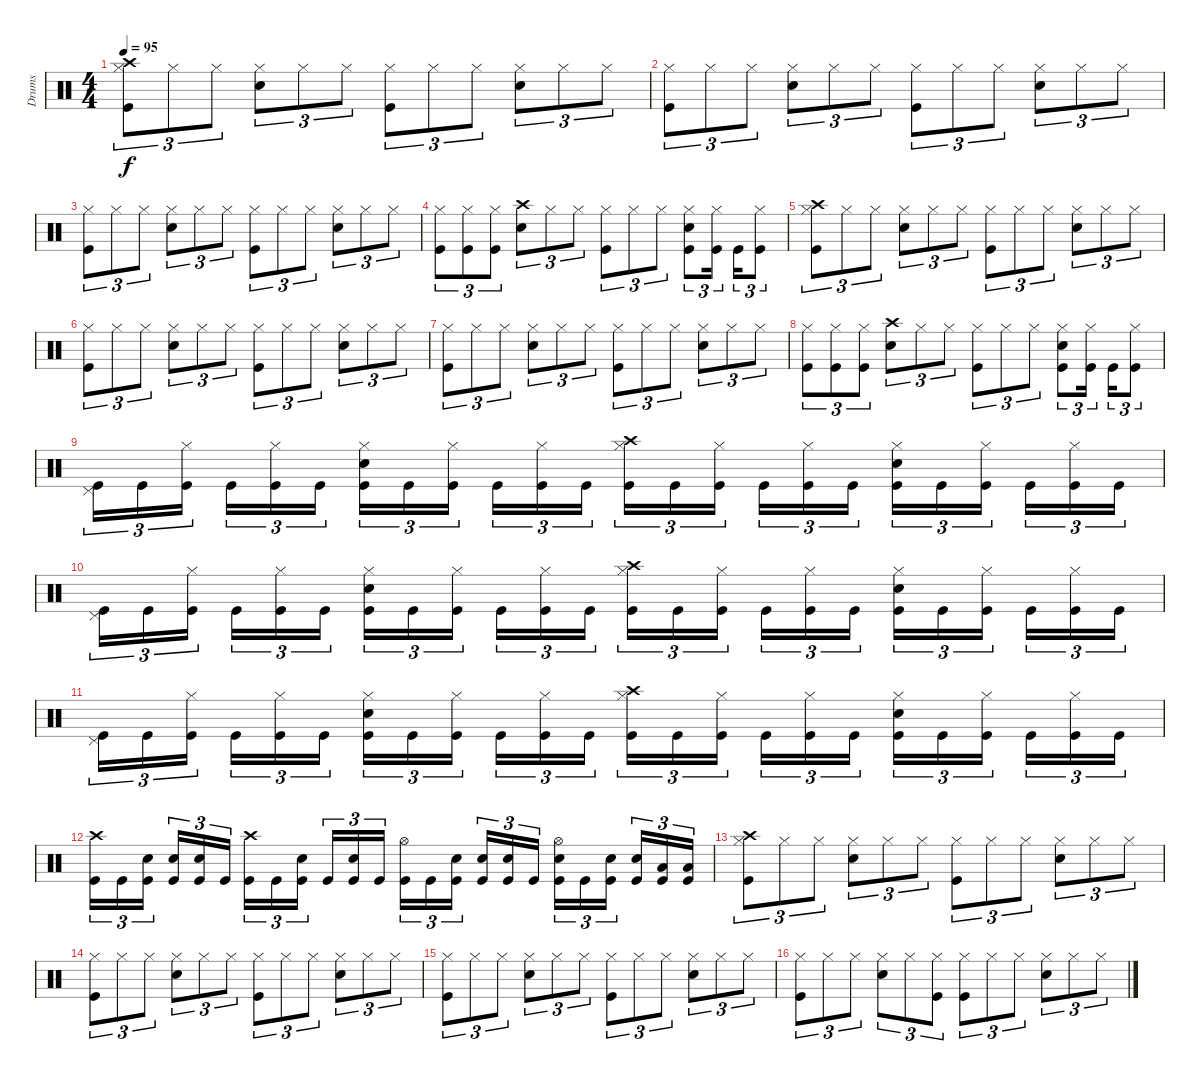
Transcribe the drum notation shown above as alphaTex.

\track ("Drums" "Drums") {instrument percussion}
\staff {score}
\articulation defaults
\ts (4 4)
\tempo 95
\clef neutral
\ks c
("Crash high (hit)" "Hi-Hat (closed)" "Kick (hit)").8{tu (3 2) dy f} "Hi-Hat (closed)".8{tu (3 2)} "Hi-Hat (closed)".8{tu (3 2)} ("Hi-Hat (closed)" "Electric Snare (hit)").8{tu (3 2)} "Hi-Hat (closed)".8{tu (3 2)} "Hi-Hat (closed)".8{tu (3 2)} ("Hi-Hat (closed)" "Kick (hit)").8{tu (3 2)} "Hi-Hat (closed)".8{tu (3 2)} "Hi-Hat (closed)".8{tu (3 2)} ("Hi-Hat (closed)" "Electric Snare (hit)").8{tu (3 2)} "Hi-Hat (closed)".8{tu (3 2)} "Hi-Hat (closed)".8{tu (3 2)} |
("Hi-Hat (closed)" "Kick (hit)").8{tu (3 2)} "Hi-Hat (closed)".8{tu (3 2)} "Hi-Hat (closed)".8{tu (3 2)} ("Hi-Hat (closed)" "Electric Snare (hit)").8{tu (3 2)} "Hi-Hat (closed)".8{tu (3 2)} "Hi-Hat (closed)".8{tu (3 2)} ("Hi-Hat (closed)" "Kick (hit)").8{tu (3 2)} "Hi-Hat (closed)".8{tu (3 2)} "Hi-Hat (closed)".8{tu (3 2)} ("Hi-Hat (closed)" "Electric Snare (hit)").8{tu (3 2)} "Hi-Hat (closed)".8{tu (3 2)} "Hi-Hat (closed)".8{tu (3 2)} |
("Hi-Hat (closed)" "Kick (hit)").8{tu (3 2)} "Hi-Hat (closed)".8{tu (3 2)} "Hi-Hat (closed)".8{tu (3 2)} ("Hi-Hat (closed)" "Electric Snare (hit)").8{tu (3 2)} "Hi-Hat (closed)".8{tu (3 2)} "Hi-Hat (closed)".8{tu (3 2)} ("Hi-Hat (closed)" "Kick (hit)").8{tu (3 2)} "Hi-Hat (closed)".8{tu (3 2)} "Hi-Hat (closed)".8{tu (3 2)} ("Hi-Hat (closed)" "Electric Snare (hit)").8{tu (3 2)} "Hi-Hat (closed)".8{tu (3 2)} "Hi-Hat (closed)".8{tu (3 2)} |
("Hi-Hat (closed)" "Kick (hit)").8{tu (3 2)} ("Hi-Hat (closed)" "Kick (hit)").8{tu (3 2)} ("Hi-Hat (closed)" "Kick (hit)").8{tu (3 2)} ("Crash high (hit)" "Electric Snare (hit)").8{tu (3 2)} "Hi-Hat (closed)".8{tu (3 2)} "Hi-Hat (closed)".8{tu (3 2)} ("Hi-Hat (closed)" "Kick (hit)").8{tu (3 2)} "Hi-Hat (closed)".8{tu (3 2)} "Hi-Hat (closed)".8{tu (3 2)} ("Hi-Hat (closed)" "Electric Snare (hit)" "Kick (hit)").8{tu (3 2)} ("Hi-Hat (closed)" "Kick (hit)").16{tu (3 2)} "Kick (hit)".16{tu (3 2)} ("Hi-Hat (closed)" "Kick (hit)").8{tu (3 2)} |
("Crash high (hit)" "Hi-Hat (closed)" "Kick (hit)").8{tu (3 2)} "Hi-Hat (closed)".8{tu (3 2)} "Hi-Hat (closed)".8{tu (3 2)} ("Hi-Hat (closed)" "Electric Snare (hit)").8{tu (3 2)} "Hi-Hat (closed)".8{tu (3 2)} "Hi-Hat (closed)".8{tu (3 2)} ("Hi-Hat (closed)" "Kick (hit)").8{tu (3 2)} "Hi-Hat (closed)".8{tu (3 2)} "Hi-Hat (closed)".8{tu (3 2)} ("Hi-Hat (closed)" "Electric Snare (hit)").8{tu (3 2)} "Hi-Hat (closed)".8{tu (3 2)} "Hi-Hat (closed)".8{tu (3 2)} |
("Hi-Hat (closed)" "Kick (hit)").8{tu (3 2)} "Hi-Hat (closed)".8{tu (3 2)} "Hi-Hat (closed)".8{tu (3 2)} ("Hi-Hat (closed)" "Electric Snare (hit)").8{tu (3 2)} "Hi-Hat (closed)".8{tu (3 2)} "Hi-Hat (closed)".8{tu (3 2)} ("Hi-Hat (closed)" "Kick (hit)").8{tu (3 2)} "Hi-Hat (closed)".8{tu (3 2)} "Hi-Hat (closed)".8{tu (3 2)} ("Hi-Hat (closed)" "Electric Snare (hit)").8{tu (3 2)} "Hi-Hat (closed)".8{tu (3 2)} "Hi-Hat (closed)".8{tu (3 2)} |
("Hi-Hat (closed)" "Kick (hit)").8{tu (3 2)} "Hi-Hat (closed)".8{tu (3 2)} "Hi-Hat (closed)".8{tu (3 2)} ("Hi-Hat (closed)" "Electric Snare (hit)").8{tu (3 2)} "Hi-Hat (closed)".8{tu (3 2)} "Hi-Hat (closed)".8{tu (3 2)} ("Hi-Hat (closed)" "Kick (hit)").8{tu (3 2)} "Hi-Hat (closed)".8{tu (3 2)} "Hi-Hat (closed)".8{tu (3 2)} ("Hi-Hat (closed)" "Electric Snare (hit)").8{tu (3 2)} "Hi-Hat (closed)".8{tu (3 2)} "Hi-Hat (closed)".8{tu (3 2)} |
("Hi-Hat (closed)" "Kick (hit)").8{tu (3 2)} ("Hi-Hat (closed)" "Kick (hit)").8{tu (3 2)} ("Hi-Hat (closed)" "Kick (hit)").8{tu (3 2)} ("Crash high (hit)" "Electric Snare (hit)").8{tu (3 2)} "Hi-Hat (closed)".8{tu (3 2)} "Hi-Hat (closed)".8{tu (3 2)} ("Hi-Hat (closed)" "Kick (hit)").8{tu (3 2)} "Hi-Hat (closed)".8{tu (3 2)} "Hi-Hat (closed)".8{tu (3 2)} ("Hi-Hat (closed)" "Electric Snare (hit)" "Kick (hit)").8{tu (3 2)} ("Hi-Hat (closed)" "Kick (hit)").16{tu (3 2)} "Kick (hit)".16{tu (3 2)} ("Hi-Hat (closed)" "Kick (hit)").8{tu (3 2)} |
("Pedal Hi-Hat (hit)" "Kick (hit)").16{tu (3 2)} "Kick (hit)".16{tu (3 2)} ("Hi-Hat (closed)" "Kick (hit)").16{tu (3 2)} "Kick (hit)".16{tu (3 2)} ("Hi-Hat (closed)" "Kick (hit)").16{tu (3 2)} "Kick (hit)".16{tu (3 2)} ("Hi-Hat (closed)" "Electric Snare (hit)" "Kick (hit)").16{tu (3 2)} "Kick (hit)".16{tu (3 2)} ("Hi-Hat (closed)" "Kick (hit)").16{tu (3 2)} "Kick (hit)".16{tu (3 2)} ("Hi-Hat (closed)" "Kick (hit)").16{tu (3 2)} "Kick (hit)".16{tu (3 2)} ("Hi-Hat (closed)" "Crash high (hit)" "Kick (hit)").16{tu (3 2)} "Kick (hit)".16{tu (3 2)} ("Hi-Hat (closed)" "Kick (hit)").16{tu (3 2)} "Kick (hit)".16{tu (3 2)} ("Hi-Hat (closed)" "Kick (hit)").16{tu (3 2)} "Kick (hit)".16{tu (3 2)} ("Hi-Hat (closed)" "Electric Snare (hit)" "Kick (hit)").16{tu (3 2)} "Kick (hit)".16{tu (3 2)} ("Hi-Hat (closed)" "Kick (hit)").16{tu (3 2)} "Kick (hit)".16{tu (3 2)} ("Hi-Hat (closed)" "Kick (hit)").16{tu (3 2)} "Kick (hit)".16{tu (3 2)} |
("Pedal Hi-Hat (hit)" "Kick (hit)").16{tu (3 2)} "Kick (hit)".16{tu (3 2)} ("Hi-Hat (closed)" "Kick (hit)").16{tu (3 2)} "Kick (hit)".16{tu (3 2)} ("Hi-Hat (closed)" "Kick (hit)").16{tu (3 2)} "Kick (hit)".16{tu (3 2)} ("Hi-Hat (closed)" "Electric Snare (hit)" "Kick (hit)").16{tu (3 2)} "Kick (hit)".16{tu (3 2)} ("Hi-Hat (closed)" "Kick (hit)").16{tu (3 2)} "Kick (hit)".16{tu (3 2)} ("Hi-Hat (closed)" "Kick (hit)").16{tu (3 2)} "Kick (hit)".16{tu (3 2)} ("Hi-Hat (closed)" "Crash high (hit)" "Kick (hit)").16{tu (3 2)} "Kick (hit)".16{tu (3 2)} ("Hi-Hat (closed)" "Kick (hit)").16{tu (3 2)} "Kick (hit)".16{tu (3 2)} ("Hi-Hat (closed)" "Kick (hit)").16{tu (3 2)} "Kick (hit)".16{tu (3 2)} ("Hi-Hat (closed)" "Electric Snare (hit)" "Kick (hit)").16{tu (3 2)} "Kick (hit)".16{tu (3 2)} ("Hi-Hat (closed)" "Kick (hit)").16{tu (3 2)} "Kick (hit)".16{tu (3 2)} ("Hi-Hat (closed)" "Kick (hit)").16{tu (3 2)} "Kick (hit)".16{tu (3 2)} |
("Pedal Hi-Hat (hit)" "Kick (hit)").16{tu (3 2)} "Kick (hit)".16{tu (3 2)} ("Hi-Hat (closed)" "Kick (hit)").16{tu (3 2)} "Kick (hit)".16{tu (3 2)} ("Hi-Hat (closed)" "Kick (hit)").16{tu (3 2)} "Kick (hit)".16{tu (3 2)} ("Hi-Hat (closed)" "Electric Snare (hit)" "Kick (hit)").16{tu (3 2)} "Kick (hit)".16{tu (3 2)} ("Hi-Hat (closed)" "Kick (hit)").16{tu (3 2)} "Kick (hit)".16{tu (3 2)} ("Hi-Hat (closed)" "Kick (hit)").16{tu (3 2)} "Kick (hit)".16{tu (3 2)} ("Hi-Hat (closed)" "Crash high (hit)" "Kick (hit)").16{tu (3 2)} "Kick (hit)".16{tu (3 2)} ("Hi-Hat (closed)" "Kick (hit)").16{tu (3 2)} "Kick (hit)".16{tu (3 2)} ("Hi-Hat (closed)" "Kick (hit)").16{tu (3 2)} "Kick (hit)".16{tu (3 2)} ("Hi-Hat (closed)" "Electric Snare (hit)" "Kick (hit)").16{tu (3 2)} "Kick (hit)".16{tu (3 2)} ("Hi-Hat (closed)" "Kick (hit)").16{tu (3 2)} "Kick (hit)".16{tu (3 2)} ("Hi-Hat (closed)" "Kick (hit)").16{tu (3 2)} "Kick (hit)".16{tu (3 2)} |
("Crash high (hit)" "Kick (hit)").16{tu (3 2)} "Kick (hit)".16{tu (3 2)} ("Electric Snare (hit)" "Kick (hit)").16{tu (3 2)} ("Electric Snare (hit)" "Kick (hit)").16{tu (3 2)} ("Electric Snare (hit)" "Kick (hit)").16{tu (3 2)} "Kick (hit)".16{tu (3 2)} ("Crash high (hit)" "Kick (hit)").16{tu (3 2)} "Kick (hit)".16{tu (3 2)} ("Electric Snare (hit)" "Kick (hit)").16{tu (3 2)} "Kick (hit)".16{tu (3 2)} ("Electric Snare (hit)" "Kick (hit)").16{tu (3 2)} "Kick (hit)".16{tu (3 2)} ("Hi-Hat (open)" "Kick (hit)").16{tu (3 2)} "Kick (hit)".16{tu (3 2)} ("Electric Snare (hit)" "Kick (hit)").16{tu (3 2)} ("Electric Snare (hit)" "Kick (hit)").16{tu (3 2)} ("Electric Snare (hit)" "Kick (hit)").16{tu (3 2)} "Kick (hit)".16{tu (3 2)} ("Hi-Hat (open)" "Electric Snare (hit)" "Kick (hit)").16{tu (3 2)} "Kick (hit)".16{tu (3 2)} ("Snare (hit) 2" "Kick (hit)").16{tu (3 2)} ("Snare (hit) 2" "Kick (hit)").16{tu (3 2)} ("Low Tom (hit)" "Kick (hit)").16{tu (3 2)} ("Low Floor Tom (hit)" "Kick (hit)").16{tu (3 2)} |
("Crash high (hit)" "Hi-Hat (closed)" "Kick (hit)").8{tu (3 2)} "Hi-Hat (closed)".8{tu (3 2)} "Hi-Hat (closed)".8{tu (3 2)} ("Hi-Hat (closed)" "Electric Snare (hit)").8{tu (3 2)} "Hi-Hat (closed)".8{tu (3 2)} "Hi-Hat (closed)".8{tu (3 2)} ("Hi-Hat (closed)" "Kick (hit)").8{tu (3 2)} "Hi-Hat (closed)".8{tu (3 2)} "Hi-Hat (closed)".8{tu (3 2)} ("Hi-Hat (closed)" "Electric Snare (hit)").8{tu (3 2)} "Hi-Hat (closed)".8{tu (3 2)} "Hi-Hat (closed)".8{tu (3 2)} |
("Hi-Hat (closed)" "Kick (hit)").8{tu (3 2)} "Hi-Hat (closed)".8{tu (3 2)} "Hi-Hat (closed)".8{tu (3 2)} ("Hi-Hat (closed)" "Electric Snare (hit)").8{tu (3 2)} "Hi-Hat (closed)".8{tu (3 2)} "Hi-Hat (closed)".8{tu (3 2)} ("Hi-Hat (closed)" "Kick (hit)").8{tu (3 2)} "Hi-Hat (closed)".8{tu (3 2)} "Hi-Hat (closed)".8{tu (3 2)} ("Hi-Hat (closed)" "Electric Snare (hit)").8{tu (3 2)} "Hi-Hat (closed)".8{tu (3 2)} "Hi-Hat (closed)".8{tu (3 2)} |
("Hi-Hat (closed)" "Kick (hit)").8{tu (3 2)} "Hi-Hat (closed)".8{tu (3 2)} "Hi-Hat (closed)".8{tu (3 2)} ("Hi-Hat (closed)" "Electric Snare (hit)").8{tu (3 2)} "Hi-Hat (closed)".8{tu (3 2)} "Hi-Hat (closed)".8{tu (3 2)} ("Hi-Hat (closed)" "Kick (hit)").8{tu (3 2)} "Hi-Hat (closed)".8{tu (3 2)} "Hi-Hat (closed)".8{tu (3 2)} ("Hi-Hat (closed)" "Electric Snare (hit)").8{tu (3 2)} "Hi-Hat (closed)".8{tu (3 2)} "Hi-Hat (closed)".8{tu (3 2)} |
("Hi-Hat (closed)" "Kick (hit)").8{tu (3 2)} "Hi-Hat (closed)".8{tu (3 2)} "Hi-Hat (closed)".8{tu (3 2)} ("Hi-Hat (closed)" "Electric Snare (hit)").8{tu (3 2)} "Hi-Hat (closed)".8{tu (3 2)} ("Hi-Hat (closed)" "Kick (hit)").8{tu (3 2)} ("Hi-Hat (closed)" "Kick (hit)").8{tu (3 2)} "Hi-Hat (closed)".8{tu (3 2)} "Hi-Hat (closed)".8{tu (3 2)} ("Hi-Hat (closed)" "Electric Snare (hit)").8{tu (3 2)} "Hi-Hat (closed)".8{tu (3 2)} "Hi-Hat (closed)".8{tu (3 2)}
